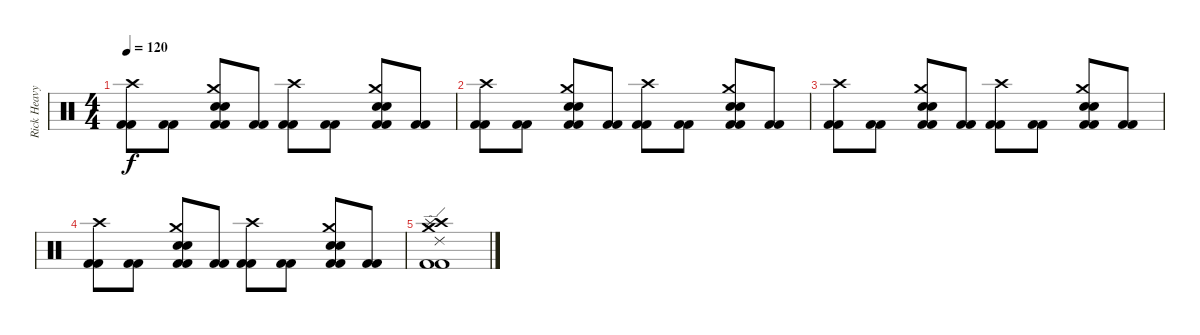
\track ("Rick Heavy" "Rick Heavy") {instrument percussion}
\staff {score}
\articulation defaults
\ts (4 4)
\tempo 120
\clef neutral
\ks c
("Crash high (hit)" "Kick (hit) 2" "Kick (hit) 2").8{dy f volume 6} ("Kick (hit) 2" "Kick (hit) 2").8 ("Crash medium (hit)" "Electric Snare (hit)" "Snare (hit) 2" "Kick (hit) 2" "Kick (hit) 2").8 ("Kick (hit) 2" "Kick (hit) 2").8 ("Crash high (hit)" "Kick (hit) 2" "Kick (hit) 2").8 ("Kick (hit) 2" "Kick (hit) 2").8 ("Crash medium (hit)" "Electric Snare (hit)" "Snare (hit) 2" "Kick (hit) 2" "Kick (hit) 2").8 ("Kick (hit) 2" "Kick (hit) 2").8 |
("Crash high (hit)" "Kick (hit) 2" "Kick (hit) 2").8{volume 5} ("Kick (hit) 2" "Kick (hit) 2").8 ("Crash medium (hit)" "Electric Snare (hit)" "Snare (hit) 2" "Kick (hit) 2" "Kick (hit) 2").8 ("Kick (hit) 2" "Kick (hit) 2").8 ("Crash high (hit)" "Kick (hit) 2" "Kick (hit) 2").8 ("Kick (hit) 2" "Kick (hit) 2").8 ("Crash medium (hit)" "Electric Snare (hit)" "Snare (hit) 2" "Kick (hit) 2" "Kick (hit) 2").8 ("Kick (hit) 2" "Kick (hit) 2").8 |
("Crash high (hit)" "Kick (hit) 2" "Kick (hit) 2").8{volume 3} ("Kick (hit) 2" "Kick (hit) 2").8 ("Crash medium (hit)" "Electric Snare (hit)" "Snare (hit) 2" "Kick (hit) 2" "Kick (hit) 2").8 ("Kick (hit) 2" "Kick (hit) 2").8 ("Crash high (hit)" "Kick (hit) 2" "Kick (hit) 2").8 ("Kick (hit) 2" "Kick (hit) 2").8 ("Crash medium (hit)" "Electric Snare (hit)" "Snare (hit) 2" "Kick (hit) 2" "Kick (hit) 2").8 ("Kick (hit) 2" "Kick (hit) 2").8 |
("Crash high (hit)" "Kick (hit) 2" "Kick (hit) 2").8{volume 2} ("Kick (hit) 2" "Kick (hit) 2").8 ("Crash medium (hit)" "Electric Snare (hit)" "Snare (hit) 2" "Kick (hit) 2" "Kick (hit) 2").8 ("Kick (hit) 2" "Kick (hit) 2").8 ("Crash high (hit)" "Kick (hit) 2" "Kick (hit) 2").8 ("Kick (hit) 2" "Kick (hit) 2").8 ("Crash medium (hit)" "Electric Snare (hit)" "Snare (hit) 2" "Kick (hit) 2" "Kick (hit) 2").8 ("Kick (hit) 2" "Kick (hit) 2").8 |
("Crash high (hit)" "Crash medium (hit)" "Splash (hit)" "Ride (edge) 2" "Kick (hit) 2" "Kick (hit) 2").1{volume 0}
